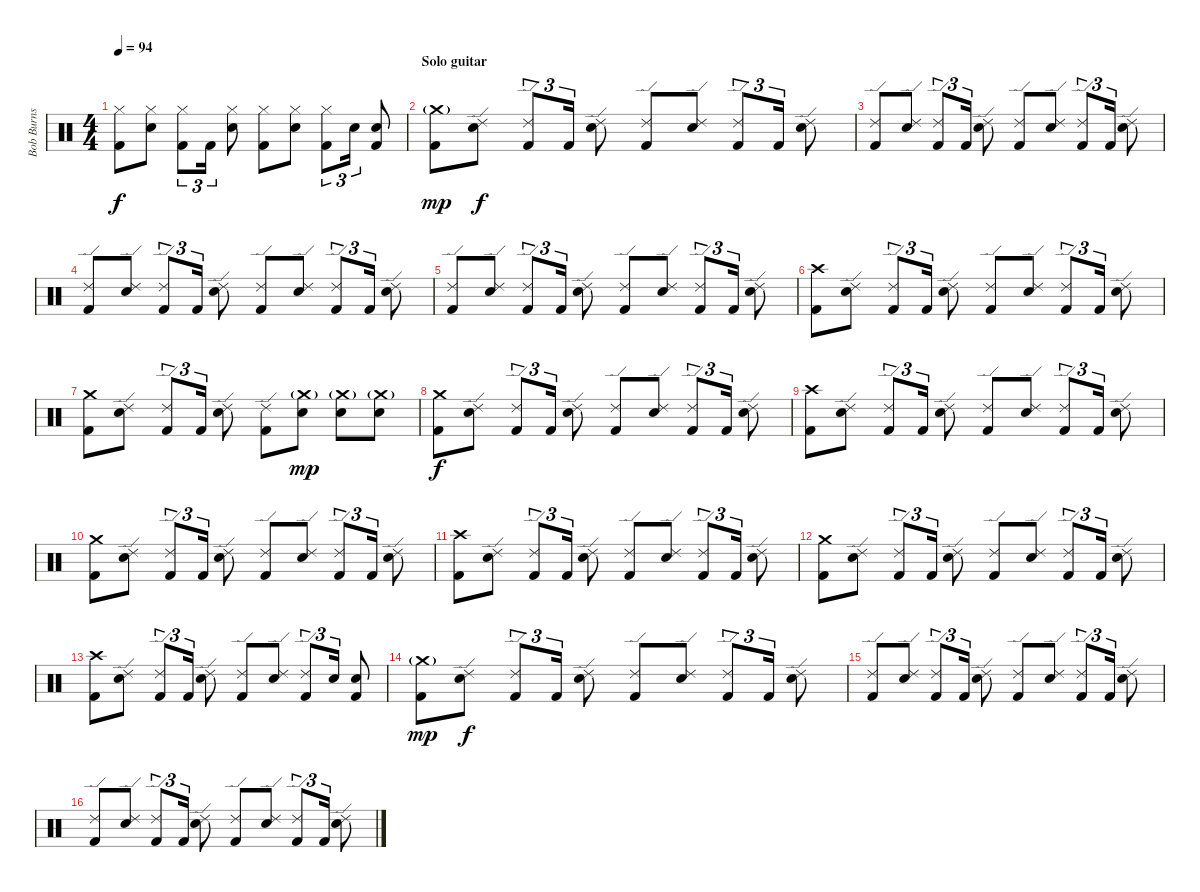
\track ("Bob Burns (drums)" "Bob Burns ") {instrument percussion}
\staff {score}
\articulation defaults
\ts (4 4)
\tempo 94
\clef neutral
\ks c
("Hi-Hat (closed)" "Kick (hit) 2").8{dy f} ("Hi-Hat (closed)" "Electric Snare (hit)").8 ("Hi-Hat (closed)" "Kick (hit) 2").8{tu (3 2)} "Kick (hit) 2".16{tu (3 2)} ("Hi-Hat (closed)" "Electric Snare (hit)").8 ("Hi-Hat (closed)" "Kick (hit) 2").8 ("Hi-Hat (closed)" "Electric Snare (hit)").8 ("Hi-Hat (closed)" "Kick (hit) 2").8{tu (3 2)} "Electric Snare (hit)".16{tu (3 2)} ("Electric Snare (hit)" "Kick (hit) 2").8 |
\section ("" "Solo guitar")
("Crash medium (hit)"{g} "Kick (hit) 2").8{dy mp} ("Ride (edge) 2" "Electric Snare (hit)").8{dy f} ("Ride (edge) 2" "Kick (hit) 2").8{tu (3 2)} "Kick (hit) 2".16{tu (3 2)} ("Ride (edge) 2" "Electric Snare (hit)").8 ("Ride (edge) 2" "Kick (hit) 2").8 ("Ride (edge) 2" "Electric Snare (hit)").8 ("Ride (edge) 2" "Kick (hit) 2").8{tu (3 2)} "Kick (hit) 2".16{tu (3 2)} ("Ride (edge) 2" "Electric Snare (hit)").8 |
("Ride (edge) 2" "Kick (hit) 2").8 ("Ride (edge) 2" "Electric Snare (hit)").8 ("Ride (edge) 2" "Kick (hit) 2").8{tu (3 2)} "Kick (hit) 2".16{tu (3 2)} ("Ride (edge) 2" "Electric Snare (hit)").8 ("Ride (edge) 2" "Kick (hit) 2").8 ("Ride (edge) 2" "Electric Snare (hit)").8 ("Ride (edge) 2" "Kick (hit) 2").8{tu (3 2)} "Kick (hit) 2".16{tu (3 2)} ("Ride (edge) 2" "Electric Snare (hit)").8 |
("Ride (edge) 2" "Kick (hit) 2").8 ("Ride (edge) 2" "Electric Snare (hit)").8 ("Ride (edge) 2" "Kick (hit) 2").8{tu (3 2)} "Kick (hit) 2".16{tu (3 2)} ("Ride (edge) 2" "Electric Snare (hit)").8 ("Ride (edge) 2" "Kick (hit) 2").8 ("Ride (edge) 2" "Electric Snare (hit)").8 ("Ride (edge) 2" "Kick (hit) 2").8{tu (3 2)} "Kick (hit) 2".16{tu (3 2)} ("Ride (edge) 2" "Electric Snare (hit)").8 |
("Ride (edge) 2" "Kick (hit) 2").8 ("Ride (edge) 2" "Electric Snare (hit)").8 ("Ride (edge) 2" "Kick (hit) 2").8{tu (3 2)} "Kick (hit) 2".16{tu (3 2)} ("Ride (edge) 2" "Electric Snare (hit)").8 ("Ride (edge) 2" "Kick (hit) 2").8 ("Ride (edge) 2" "Electric Snare (hit)").8 ("Ride (edge) 2" "Kick (hit) 2").8{tu (3 2)} "Kick (hit) 2".16{tu (3 2)} ("Ride (edge) 2" "Electric Snare (hit)").8 |
("Crash high (hit)" "Kick (hit) 2").8 ("Ride (edge) 2" "Electric Snare (hit)").8 ("Ride (edge) 2" "Kick (hit) 2").8{tu (3 2)} "Kick (hit) 2".16{tu (3 2)} ("Ride (edge) 2" "Electric Snare (hit)").8 ("Ride (edge) 2" "Kick (hit) 2").8 ("Ride (edge) 2" "Electric Snare (hit)").8 ("Ride (edge) 2" "Kick (hit) 2").8{tu (3 2)} "Kick (hit) 2".16{tu (3 2)} ("Ride (edge) 2" "Electric Snare (hit)").8 |
("Crash medium (hit)" "Kick (hit) 2").8 ("Ride (edge) 2" "Electric Snare (hit)").8 ("Ride (edge) 2" "Kick (hit) 2").8{tu (3 2)} "Kick (hit) 2".16{tu (3 2)} ("Ride (edge) 2" "Electric Snare (hit)").8 ("Ride (edge) 2" "Kick (hit) 2").8 ("Crash medium (hit)"{g} "Electric Snare (hit)").8{dy mp} ("Crash medium (hit)"{g} "Electric Snare (hit)").8 ("Crash medium (hit)"{g} "Electric Snare (hit)").8 |
("Crash medium (hit)" "Kick (hit) 2").8{dy f} ("Ride (edge) 2" "Electric Snare (hit)").8 ("Ride (edge) 2" "Kick (hit) 2").8{tu (3 2)} "Kick (hit) 2".16{tu (3 2)} ("Ride (edge) 2" "Electric Snare (hit)").8 ("Ride (edge) 2" "Kick (hit) 2").8 ("Ride (edge) 2" "Electric Snare (hit)").8 ("Ride (edge) 2" "Kick (hit) 2").8{tu (3 2)} "Kick (hit) 2".16{tu (3 2)} ("Ride (edge) 2" "Electric Snare (hit)").8 |
("Crash high (hit)" "Kick (hit) 2").8 ("Ride (edge) 2" "Electric Snare (hit)").8 ("Ride (edge) 2" "Kick (hit) 2").8{tu (3 2)} "Kick (hit) 2".16{tu (3 2)} ("Ride (edge) 2" "Electric Snare (hit)").8 ("Ride (edge) 2" "Kick (hit) 2").8 ("Ride (edge) 2" "Electric Snare (hit)").8 ("Ride (edge) 2" "Kick (hit) 2").8{tu (3 2)} "Kick (hit) 2".16{tu (3 2)} ("Ride (edge) 2" "Electric Snare (hit)").8 |
("Crash medium (hit)" "Kick (hit) 2").8 ("Ride (edge) 2" "Electric Snare (hit)").8 ("Ride (edge) 2" "Kick (hit) 2").8{tu (3 2)} "Kick (hit) 2".16{tu (3 2)} ("Ride (edge) 2" "Electric Snare (hit)").8 ("Ride (edge) 2" "Kick (hit) 2").8 ("Ride (edge) 2" "Electric Snare (hit)").8 ("Ride (edge) 2" "Kick (hit) 2").8{tu (3 2)} "Kick (hit) 2".16{tu (3 2)} ("Ride (edge) 2" "Electric Snare (hit)").8 |
("Crash high (hit)" "Kick (hit) 2").8 ("Ride (edge) 2" "Electric Snare (hit)").8 ("Ride (edge) 2" "Kick (hit) 2").8{tu (3 2)} "Kick (hit) 2".16{tu (3 2)} ("Ride (edge) 2" "Electric Snare (hit)").8 ("Ride (edge) 2" "Kick (hit) 2").8 ("Ride (edge) 2" "Electric Snare (hit)").8 ("Ride (edge) 2" "Kick (hit) 2").8{tu (3 2)} "Kick (hit) 2".16{tu (3 2)} ("Ride (edge) 2" "Electric Snare (hit)").8 |
("Crash medium (hit)" "Kick (hit) 2").8 ("Ride (edge) 2" "Electric Snare (hit)").8 ("Ride (edge) 2" "Kick (hit) 2").8{tu (3 2)} "Kick (hit) 2".16{tu (3 2)} ("Ride (edge) 2" "Electric Snare (hit)").8 ("Ride (edge) 2" "Kick (hit) 2").8 ("Ride (edge) 2" "Electric Snare (hit)").8 ("Ride (edge) 2" "Kick (hit) 2").8{tu (3 2)} "Kick (hit) 2".16{tu (3 2)} ("Ride (edge) 2" "Electric Snare (hit)").8 |
("Crash high (hit)" "Kick (hit) 2").8 ("Ride (edge) 2" "Electric Snare (hit)").8 ("Ride (edge) 2" "Kick (hit) 2").8{tu (3 2)} "Kick (hit) 2".16{tu (3 2)} ("Ride (edge) 2" "Electric Snare (hit)").8 ("Ride (edge) 2" "Kick (hit) 2").8 ("Ride (edge) 2" "Electric Snare (hit)").8 ("Ride (edge) 2" "Kick (hit) 2").8{tu (3 2)} "Electric Snare (hit)".16{tu (3 2)} ("Electric Snare (hit)" "Kick (hit) 2").8 |
("Crash medium (hit)"{g} "Kick (hit) 2").8{dy mp} ("Ride (edge) 2" "Electric Snare (hit)").8{dy f} ("Ride (edge) 2" "Kick (hit) 2").8{tu (3 2)} "Kick (hit) 2".16{tu (3 2)} ("Ride (edge) 2" "Electric Snare (hit)").8 ("Ride (edge) 2" "Kick (hit) 2").8 ("Ride (edge) 2" "Electric Snare (hit)").8 ("Ride (edge) 2" "Kick (hit) 2").8{tu (3 2)} "Kick (hit) 2".16{tu (3 2)} ("Ride (edge) 2" "Electric Snare (hit)").8 |
("Ride (edge) 2" "Kick (hit) 2").8 ("Ride (edge) 2" "Electric Snare (hit)").8 ("Ride (edge) 2" "Kick (hit) 2").8{tu (3 2)} "Kick (hit) 2".16{tu (3 2)} ("Ride (edge) 2" "Electric Snare (hit)").8 ("Ride (edge) 2" "Kick (hit) 2").8 ("Ride (edge) 2" "Electric Snare (hit)").8 ("Ride (edge) 2" "Kick (hit) 2").8{tu (3 2)} "Kick (hit) 2".16{tu (3 2)} ("Ride (edge) 2" "Electric Snare (hit)").8 |
("Ride (edge) 2" "Kick (hit) 2").8 ("Ride (edge) 2" "Electric Snare (hit)").8 ("Ride (edge) 2" "Kick (hit) 2").8{tu (3 2)} "Kick (hit) 2".16{tu (3 2)} ("Ride (edge) 2" "Electric Snare (hit)").8 ("Ride (edge) 2" "Kick (hit) 2").8 ("Ride (edge) 2" "Electric Snare (hit)").8 ("Ride (edge) 2" "Kick (hit) 2").8{tu (3 2)} "Kick (hit) 2".16{tu (3 2)} ("Ride (edge) 2" "Electric Snare (hit)").8
